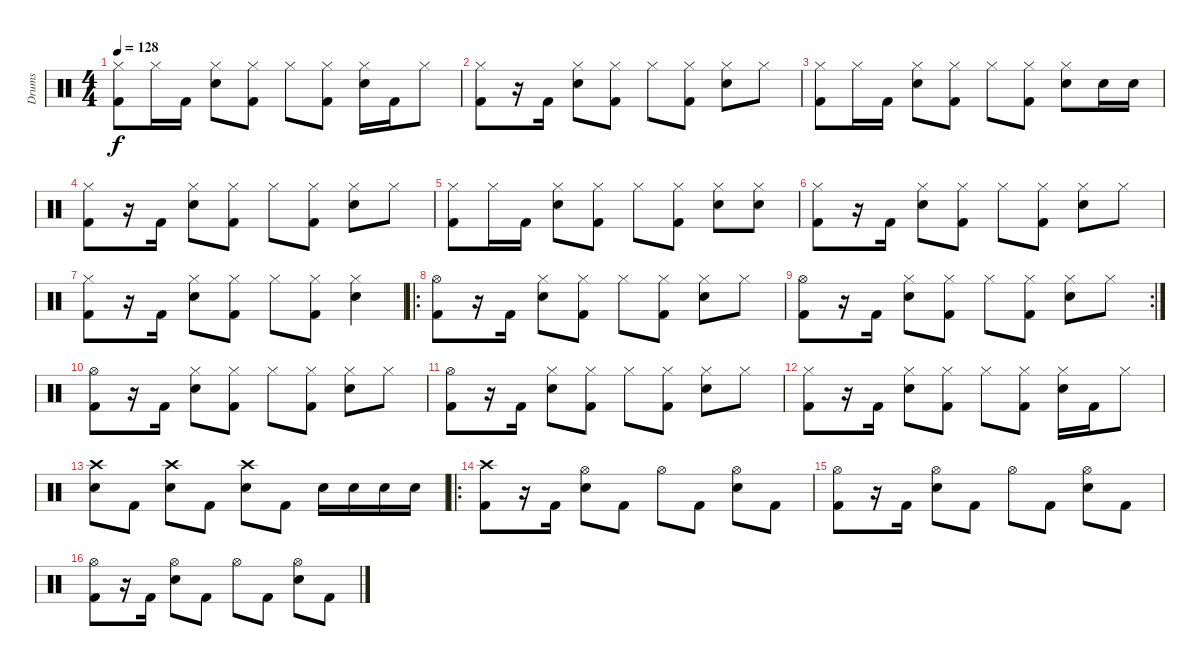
\track ("Drums" "Drums") {instrument percussion}
\staff {score}
\articulation defaults
\ts (4 4)
\tempo 128
\clef neutral
\ks c
("Hi-Hat (closed)" "Kick (hit) 2").8{dy f} "Hi-Hat (closed)".16 "Kick (hit) 2".16 ("Hi-Hat (closed)" "Electric Snare (hit)").8 ("Hi-Hat (closed)" "Kick (hit) 2").8 "Hi-Hat (closed)".8 ("Hi-Hat (closed)" "Kick (hit) 2").8 ("Hi-Hat (closed)" "Electric Snare (hit)").16 "Kick (hit) 2".16 "Hi-Hat (closed)".8 |
("Hi-Hat (closed)" "Kick (hit) 2").8 r.16 "Kick (hit) 2".16 ("Hi-Hat (closed)" "Electric Snare (hit)").8 ("Hi-Hat (closed)" "Kick (hit) 2").8 "Hi-Hat (closed)".8 ("Hi-Hat (closed)" "Kick (hit) 2").8 ("Hi-Hat (closed)" "Electric Snare (hit)").8 "Hi-Hat (closed)".8 |
("Hi-Hat (closed)" "Kick (hit) 2").8 "Hi-Hat (closed)".16 "Kick (hit) 2".16 ("Hi-Hat (closed)" "Electric Snare (hit)").8 ("Hi-Hat (closed)" "Kick (hit) 2").8 "Hi-Hat (closed)".8 ("Hi-Hat (closed)" "Kick (hit) 2").8 ("Hi-Hat (closed)" "Electric Snare (hit)").8 "Electric Snare (hit)".16 "Electric Snare (hit)".16 |
("Hi-Hat (closed)" "Kick (hit) 2").8 r.16 "Kick (hit) 2".16 ("Hi-Hat (closed)" "Electric Snare (hit)").8 ("Hi-Hat (closed)" "Kick (hit) 2").8 "Hi-Hat (closed)".8 ("Hi-Hat (closed)" "Kick (hit) 2").8 ("Hi-Hat (closed)" "Electric Snare (hit)").8 "Hi-Hat (closed)".8 |
("Hi-Hat (closed)" "Kick (hit) 2").8 "Hi-Hat (closed)".16 "Kick (hit) 2".16 ("Hi-Hat (closed)" "Electric Snare (hit)").8 ("Hi-Hat (closed)" "Kick (hit) 2").8 "Hi-Hat (closed)".8 ("Hi-Hat (closed)" "Kick (hit) 2").8 ("Hi-Hat (closed)" "Electric Snare (hit)").8 ("Hi-Hat (closed)" "Electric Snare (hit)").8 |
("Hi-Hat (closed)" "Kick (hit) 2").8 r.16 "Kick (hit) 2".16 ("Hi-Hat (closed)" "Electric Snare (hit)").8 ("Hi-Hat (closed)" "Kick (hit) 2").8 "Hi-Hat (closed)".8 ("Hi-Hat (closed)" "Kick (hit) 2").8 ("Hi-Hat (closed)" "Electric Snare (hit)").8 "Hi-Hat (closed)".8 |
("Hi-Hat (closed)" "Kick (hit) 2").8 r.16 "Kick (hit) 2".16 ("Hi-Hat (closed)" "Electric Snare (hit)").8 ("Hi-Hat (closed)" "Kick (hit) 2").8 "Hi-Hat (closed)".8 ("Hi-Hat (closed)" "Kick (hit) 2").8 ("Hi-Hat (closed)" "Electric Snare (hit)").4 |
\ro
("Hi-Hat (open)" "Kick (hit) 2").8 r.16 "Kick (hit) 2".16 ("Hi-Hat (closed)" "Electric Snare (hit)").8 ("Hi-Hat (closed)" "Kick (hit) 2").8 "Hi-Hat (closed)".8 ("Hi-Hat (closed)" "Kick (hit) 2").8 ("Hi-Hat (closed)" "Electric Snare (hit)").8 "Hi-Hat (closed)".8 |
\rc 2
("Hi-Hat (open)" "Kick (hit) 2").8 r.16 "Kick (hit) 2".16 ("Hi-Hat (closed)" "Electric Snare (hit)").8 ("Hi-Hat (closed)" "Kick (hit) 2").8 "Hi-Hat (closed)".8 ("Hi-Hat (closed)" "Kick (hit) 2").8 ("Hi-Hat (closed)" "Electric Snare (hit)").8 "Hi-Hat (closed)".8 |
("Hi-Hat (open)" "Kick (hit) 2").8 r.16 "Kick (hit) 2".16 ("Hi-Hat (closed)" "Electric Snare (hit)").8 ("Hi-Hat (closed)" "Kick (hit) 2").8 "Hi-Hat (closed)".8 ("Hi-Hat (closed)" "Kick (hit) 2").8 ("Hi-Hat (closed)" "Electric Snare (hit)").8 "Hi-Hat (closed)".8 |
("Hi-Hat (open)" "Kick (hit) 2").8 r.16 "Kick (hit) 2".16 ("Hi-Hat (closed)" "Electric Snare (hit)").8 ("Hi-Hat (closed)" "Kick (hit) 2").8 "Hi-Hat (closed)".8 ("Hi-Hat (closed)" "Kick (hit) 2").8 ("Hi-Hat (closed)" "Electric Snare (hit)").8 "Hi-Hat (closed)".8 |
("Hi-Hat (closed)" "Kick (hit) 2").8 r.16 "Kick (hit) 2".16 ("Hi-Hat (closed)" "Electric Snare (hit)").8 ("Hi-Hat (closed)" "Kick (hit) 2").8 "Hi-Hat (closed)".8 ("Hi-Hat (closed)" "Kick (hit) 2").8 ("Hi-Hat (closed)" "Electric Snare (hit)").16 "Kick (hit) 2".16 "Hi-Hat (closed)".8 |
("Crash high (hit)" "Electric Snare (hit)").8 "Kick (hit) 2".8 ("Crash high (hit)" "Electric Snare (hit)").8 "Kick (hit) 2".8 ("Crash high (hit)" "Electric Snare (hit)").8 "Kick (hit) 2".8 "Electric Snare (hit)".16 "Electric Snare (hit)".16 "Electric Snare (hit)".16 "Electric Snare (hit)".16 |
\ro
("Crash high (hit)" "Kick (hit) 2").8 r.16 "Kick (hit) 2".16 ("Hi-Hat (open)" "Electric Snare (hit)").8 "Kick (hit) 2".8 "Hi-Hat (open)".8 "Kick (hit) 2".8 ("Hi-Hat (open)" "Electric Snare (hit)").8 "Kick (hit) 2".8 |
("Hi-Hat (open)" "Kick (hit) 2").8 r.16 "Kick (hit) 2".16 ("Hi-Hat (open)" "Electric Snare (hit)").8 "Kick (hit) 2".8 "Hi-Hat (open)".8 "Kick (hit) 2".8 ("Hi-Hat (open)" "Electric Snare (hit)").8 "Kick (hit) 2".8 |
("Hi-Hat (open)" "Kick (hit) 2").8 r.16 "Kick (hit) 2".16 ("Hi-Hat (open)" "Electric Snare (hit)").8 "Kick (hit) 2".8 "Hi-Hat (open)".8 "Kick (hit) 2".8 ("Hi-Hat (open)" "Electric Snare (hit)").8 "Kick (hit) 2".8
